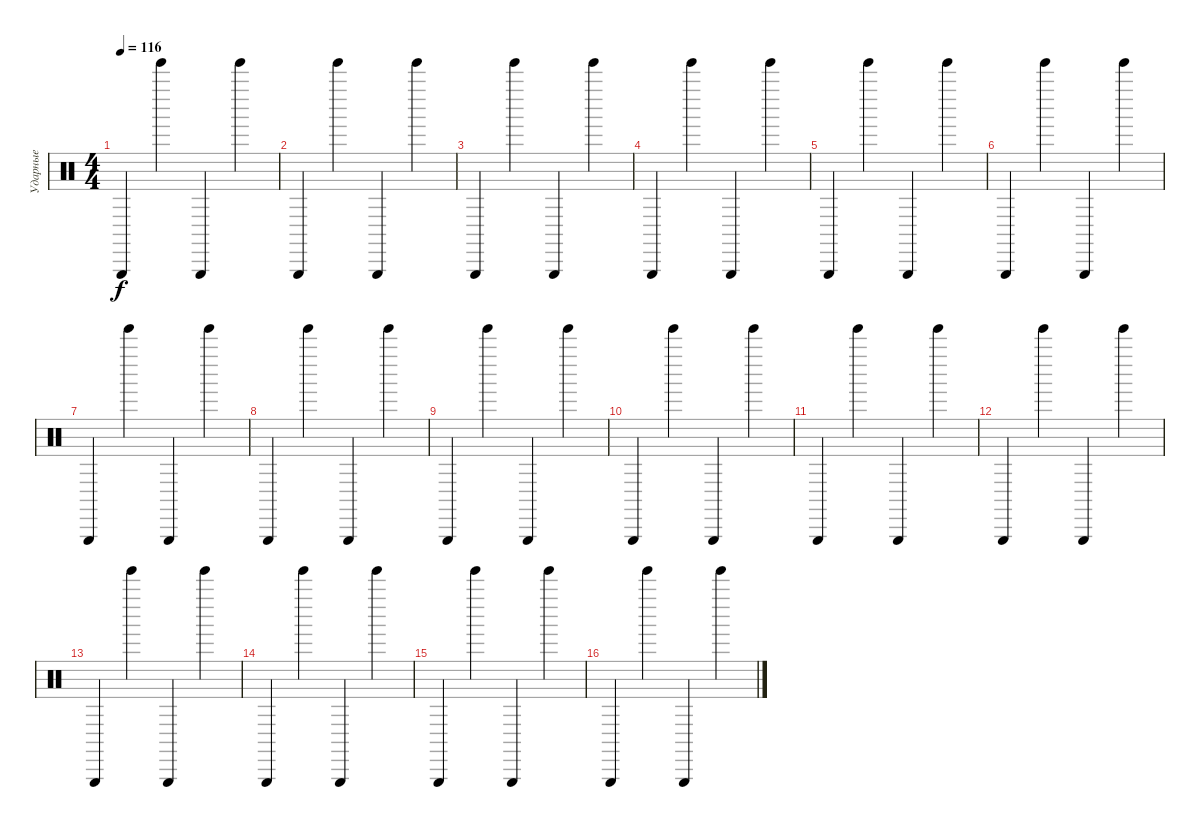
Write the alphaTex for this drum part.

\track ("Ударные" "Ударные") {instrument percussion}
\staff {score}
\articulation defaults
\ts (4 4)
\tempo 116
\clef neutral
\ks c "Triangle (hit)".4{dy f} "Tinkle Bell (hit)".4 "Triangle (hit)".4 "Tinkle Bell (hit)".4
|
"Triangle (hit)".4 "Tinkle Bell (hit)".4 "Triangle (hit)".4 "Tinkle Bell (hit)".4 |
"Triangle (hit)".4 "Tinkle Bell (hit)".4 "Triangle (hit)".4 "Tinkle Bell (hit)".4 |
"Triangle (hit)".4 "Tinkle Bell (hit)".4 "Triangle (hit)".4 "Tinkle Bell (hit)".4 |
"Triangle (hit)".4 "Tinkle Bell (hit)".4 "Triangle (hit)".4 "Tinkle Bell (hit)".4 |
"Triangle (hit)".4 "Tinkle Bell (hit)".4 "Triangle (hit)".4 "Tinkle Bell (hit)".4 |
"Triangle (hit)".4 "Tinkle Bell (hit)".4 "Triangle (hit)".4 "Tinkle Bell (hit)".4 |
"Triangle (hit)".4 "Tinkle Bell (hit)".4 "Triangle (hit)".4 "Tinkle Bell (hit)".4 |
"Triangle (hit)".4 "Tinkle Bell (hit)".4 "Triangle (hit)".4 "Tinkle Bell (hit)".4 |
"Triangle (hit)".4 "Tinkle Bell (hit)".4 "Triangle (hit)".4 "Tinkle Bell (hit)".4 |
"Triangle (hit)".4 "Tinkle Bell (hit)".4 "Triangle (hit)".4 "Tinkle Bell (hit)".4 |
"Triangle (hit)".4 "Tinkle Bell (hit)".4 "Triangle (hit)".4 "Tinkle Bell (hit)".4 |
"Triangle (hit)".4 "Tinkle Bell (hit)".4 "Triangle (hit)".4 "Tinkle Bell (hit)".4 |
"Triangle (hit)".4 "Tinkle Bell (hit)".4 "Triangle (hit)".4 "Tinkle Bell (hit)".4 |
"Triangle (hit)".4 "Tinkle Bell (hit)".4 "Triangle (hit)".4 "Tinkle Bell (hit)".4 |
"Triangle (hit)".4 "Tinkle Bell (hit)".4 "Triangle (hit)".4 "Tinkle Bell (hit)".4
